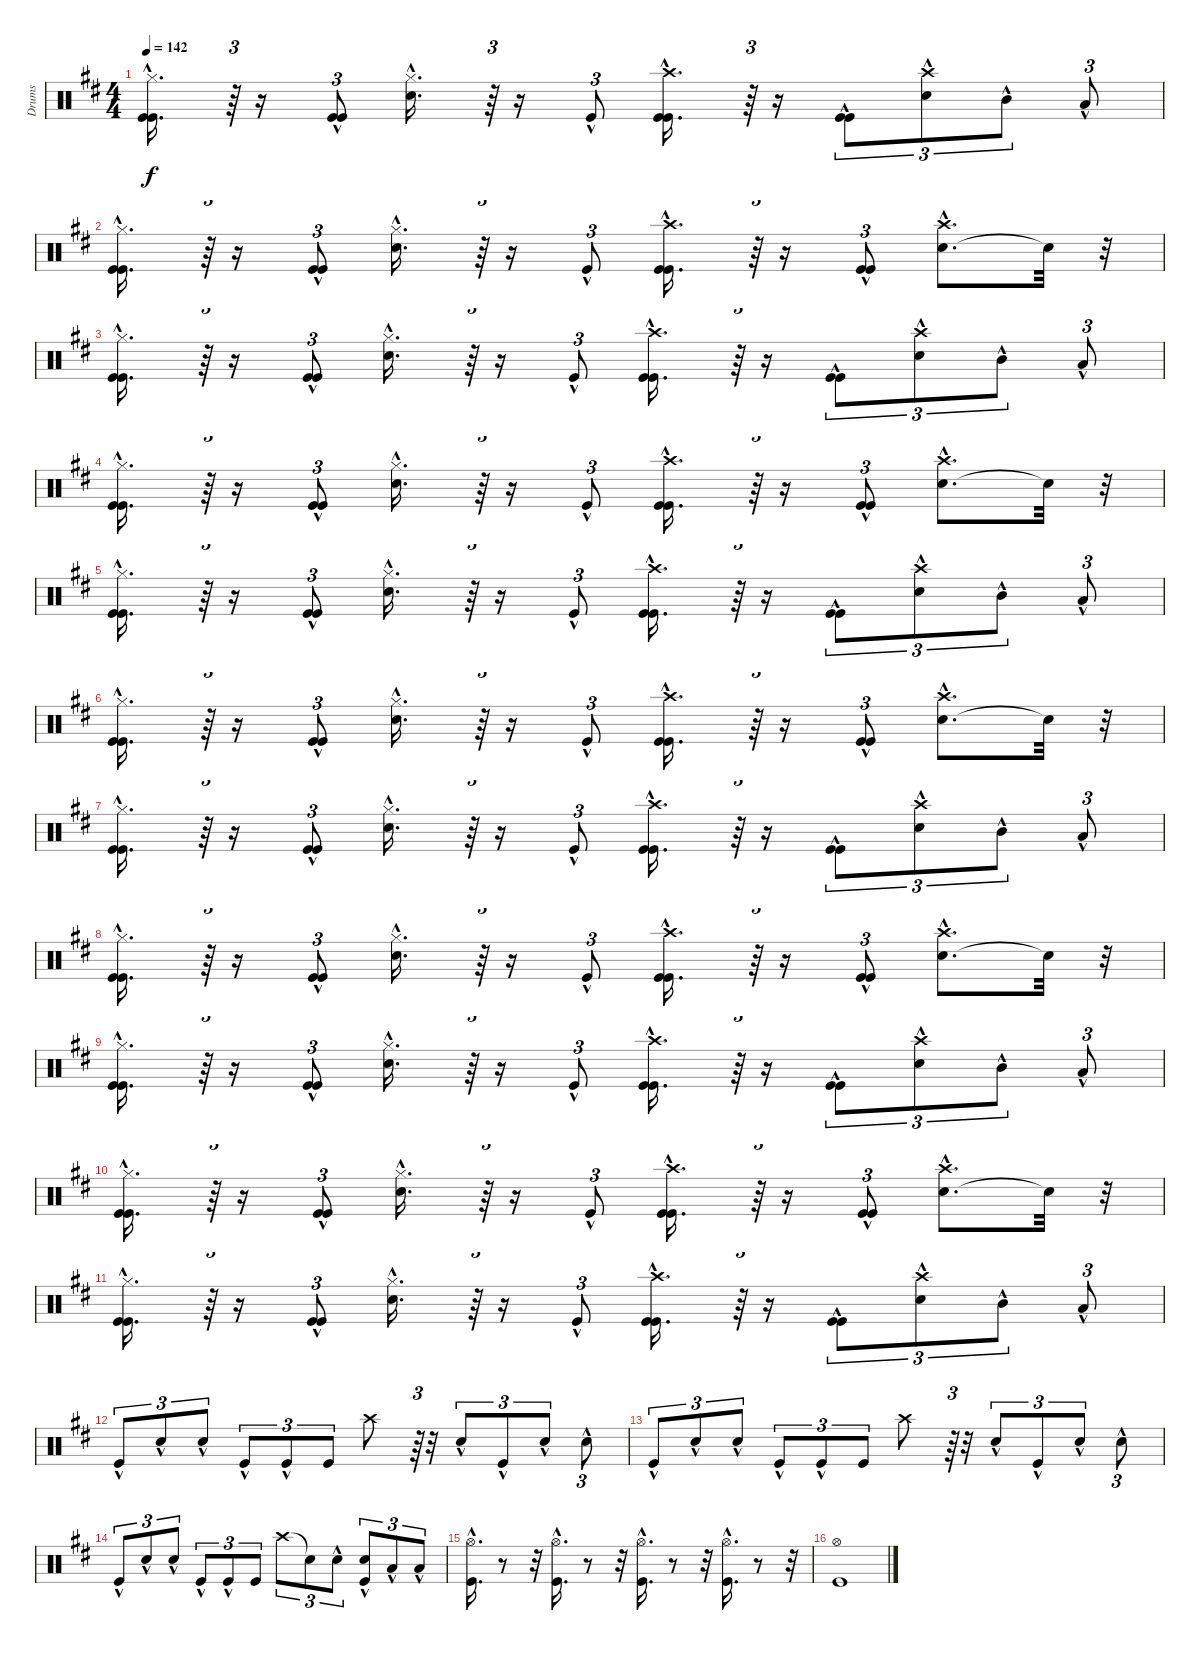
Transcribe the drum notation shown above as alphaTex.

\track ("Drums" "Drums") {instrument percussion}
\staff {score}
\articulation defaults
\ts (4 4)
\tempo 142
\clef neutral
\ks bminor
("Kick (hit)"{hac} "Kick (hit)"{hac} "Hi-Hat (closed)"{hac}).16{d dy f} r.64{tu (3 2)} r.16 ("Kick (hit)"{hac} "Kick (hit)"{hac}).8{tu (3 2)} ("Snare (hit) 2"{hac} "Hi-Hat (closed)"{hac}).16{d} r.64{tu (3 2)} r.16 "Kick (hit)"{hac}.8{tu (3 2)} ("Kick (hit)"{hac} "Kick (hit)"{hac} "Crash high (hit)"{hac}).16{d} r.64{tu (3 2)} r.16 ("Kick (hit)"{hac} "Kick (hit)"{hac}).8{tu (3 2)} ("Snare (hit) 2"{hac} "Crash high (hit)"{hac}).8{tu (3 2)} "Mid Tom (hit)"{hac}.8{tu (3 2)} "Low Tom (hit)"{hac}.8{tu (3 2)} |
("Kick (hit)"{hac} "Kick (hit)"{hac} "Hi-Hat (closed)"{hac}).16{d} r.64{tu (3 2)} r.16 ("Kick (hit)"{hac} "Kick (hit)"{hac}).8{tu (3 2)} ("Snare (hit) 2"{hac} "Hi-Hat (closed)"{hac}).16{d} r.64{tu (3 2)} r.16 "Kick (hit)"{hac}.8{tu (3 2)} ("Kick (hit)"{hac} "Kick (hit)"{hac} "Crash high (hit)"{hac}).16{d} r.64{tu (3 2)} r.16 ("Kick (hit)"{hac} "Kick (hit)"{hac}).8{tu (3 2)} ("Snare (hit) 2"{hac} "Crash high (hit)"{hac}).8{d} "Snare (hit)"{t}.32 r.32 |
("Kick (hit)"{hac} "Kick (hit)"{hac} "Hi-Hat (closed)"{hac}).16{d} r.64{tu (3 2)} r.16 ("Kick (hit)"{hac} "Kick (hit)"{hac}).8{tu (3 2)} ("Snare (hit) 2"{hac} "Hi-Hat (closed)"{hac}).16{d} r.64{tu (3 2)} r.16 "Kick (hit)"{hac}.8{tu (3 2)} ("Kick (hit)"{hac} "Kick (hit)"{hac} "Crash high (hit)"{hac}).16{d} r.64{tu (3 2)} r.16 ("Kick (hit)"{hac} "Kick (hit)"{hac}).8{tu (3 2)} ("Snare (hit) 2"{hac} "Crash high (hit)"{hac}).8{tu (3 2)} "Mid Tom (hit)"{hac}.8{tu (3 2)} "Low Tom (hit)"{hac}.8{tu (3 2)} |
("Kick (hit)"{hac} "Kick (hit)"{hac} "Hi-Hat (closed)"{hac}).16{d} r.64{tu (3 2)} r.16 ("Kick (hit)"{hac} "Kick (hit)"{hac}).8{tu (3 2)} ("Snare (hit) 2"{hac} "Hi-Hat (closed)"{hac}).16{d} r.64{tu (3 2)} r.16 "Kick (hit)"{hac}.8{tu (3 2)} ("Kick (hit)"{hac} "Kick (hit)"{hac} "Crash high (hit)"{hac}).16{d} r.64{tu (3 2)} r.16 ("Kick (hit)"{hac} "Kick (hit)"{hac}).8{tu (3 2)} ("Snare (hit) 2"{hac} "Crash high (hit)"{hac}).8{d} "Snare (hit)"{t}.32 r.32 |
("Kick (hit)"{hac} "Kick (hit)"{hac} "Hi-Hat (closed)"{hac}).16{d} r.64{tu (3 2)} r.16 ("Kick (hit)"{hac} "Kick (hit)"{hac}).8{tu (3 2)} ("Snare (hit) 2"{hac} "Hi-Hat (closed)"{hac}).16{d} r.64{tu (3 2)} r.16 "Kick (hit)"{hac}.8{tu (3 2)} ("Kick (hit)"{hac} "Kick (hit)"{hac} "Crash high (hit)"{hac}).16{d} r.64{tu (3 2)} r.16 ("Kick (hit)"{hac} "Kick (hit)"{hac}).8{tu (3 2)} ("Snare (hit) 2"{hac} "Crash high (hit)"{hac}).8{tu (3 2)} "Mid Tom (hit)"{hac}.8{tu (3 2)} "Low Tom (hit)"{hac}.8{tu (3 2)} |
("Kick (hit)"{hac} "Kick (hit)"{hac} "Hi-Hat (closed)"{hac}).16{d} r.64{tu (3 2)} r.16 ("Kick (hit)"{hac} "Kick (hit)"{hac}).8{tu (3 2)} ("Snare (hit) 2"{hac} "Hi-Hat (closed)"{hac}).16{d} r.64{tu (3 2)} r.16 "Kick (hit)"{hac}.8{tu (3 2)} ("Kick (hit)"{hac} "Kick (hit)"{hac} "Crash high (hit)"{hac}).16{d} r.64{tu (3 2)} r.16 ("Kick (hit)"{hac} "Kick (hit)"{hac}).8{tu (3 2)} ("Snare (hit) 2"{hac} "Crash high (hit)"{hac}).8{d} "Snare (hit)"{t}.32 r.32 |
("Kick (hit)"{hac} "Kick (hit)"{hac} "Hi-Hat (closed)"{hac}).16{d} r.64{tu (3 2)} r.16 ("Kick (hit)"{hac} "Kick (hit)"{hac}).8{tu (3 2)} ("Snare (hit) 2"{hac} "Hi-Hat (closed)"{hac}).16{d} r.64{tu (3 2)} r.16 "Kick (hit)"{hac}.8{tu (3 2)} ("Kick (hit)"{hac} "Kick (hit)"{hac} "Crash high (hit)"{hac}).16{d} r.64{tu (3 2)} r.16 ("Kick (hit)"{hac} "Kick (hit)"{hac}).8{tu (3 2)} ("Snare (hit) 2"{hac} "Crash high (hit)"{hac}).8{tu (3 2)} "Mid Tom (hit)"{hac}.8{tu (3 2)} "Low Tom (hit)"{hac}.8{tu (3 2)} |
("Kick (hit)"{hac} "Kick (hit)"{hac} "Hi-Hat (closed)"{hac}).16{d} r.64{tu (3 2)} r.16 ("Kick (hit)"{hac} "Kick (hit)"{hac}).8{tu (3 2)} ("Snare (hit) 2"{hac} "Hi-Hat (closed)"{hac}).16{d} r.64{tu (3 2)} r.16 "Kick (hit)"{hac}.8{tu (3 2)} ("Kick (hit)"{hac} "Kick (hit)"{hac} "Crash high (hit)"{hac}).16{d} r.64{tu (3 2)} r.16 ("Kick (hit)"{hac} "Kick (hit)"{hac}).8{tu (3 2)} ("Snare (hit) 2"{hac} "Crash high (hit)"{hac}).8{d} "Snare (hit)"{t}.32 r.32 |
("Kick (hit)"{hac} "Kick (hit)"{hac} "Hi-Hat (closed)"{hac}).16{d} r.64{tu (3 2)} r.16 ("Kick (hit)"{hac} "Kick (hit)"{hac}).8{tu (3 2)} ("Snare (hit) 2"{hac} "Hi-Hat (closed)"{hac}).16{d} r.64{tu (3 2)} r.16 "Kick (hit)"{hac}.8{tu (3 2)} ("Kick (hit)"{hac} "Kick (hit)"{hac} "Crash high (hit)"{hac}).16{d} r.64{tu (3 2)} r.16 ("Kick (hit)"{hac} "Kick (hit)"{hac}).8{tu (3 2)} ("Snare (hit) 2"{hac} "Crash high (hit)"{hac}).8{tu (3 2)} "Mid Tom (hit)"{hac}.8{tu (3 2)} "Low Tom (hit)"{hac}.8{tu (3 2)} |
("Kick (hit)"{hac} "Kick (hit)"{hac} "Hi-Hat (closed)"{hac}).16{d} r.64{tu (3 2)} r.16 ("Kick (hit)"{hac} "Kick (hit)"{hac}).8{tu (3 2)} ("Snare (hit) 2"{hac} "Hi-Hat (closed)"{hac}).16{d} r.64{tu (3 2)} r.16 "Kick (hit)"{hac}.8{tu (3 2)} ("Kick (hit)"{hac} "Kick (hit)"{hac} "Crash high (hit)"{hac}).16{d} r.64{tu (3 2)} r.16 ("Kick (hit)"{hac} "Kick (hit)"{hac}).8{tu (3 2)} ("Snare (hit) 2"{hac} "Crash high (hit)"{hac}).8{d} "Snare (hit)"{t}.32 r.32 |
("Kick (hit)"{hac} "Kick (hit)"{hac} "Hi-Hat (closed)"{hac}).16{d} r.64{tu (3 2)} r.16 ("Kick (hit)"{hac} "Kick (hit)"{hac}).8{tu (3 2)} ("Snare (hit) 2"{hac} "Hi-Hat (closed)"{hac}).16{d} r.64{tu (3 2)} r.16 "Kick (hit)"{hac}.8{tu (3 2)} ("Kick (hit)"{hac} "Kick (hit)"{hac} "Crash high (hit)"{hac}).16{d} r.64{tu (3 2)} r.16 ("Kick (hit)"{hac} "Kick (hit)"{hac}).8{tu (3 2)} ("Snare (hit) 2"{hac} "Crash high (hit)"{hac}).8{tu (3 2)} "Mid Tom (hit)"{hac}.8{tu (3 2)} "Low Tom (hit)"{hac}.8{tu (3 2)} |
"Kick (hit)"{hac}.8{tu (3 2)} "Snare (hit) 2"{hac}.8{tu (3 2)} "Snare (hit) 2"{hac}.8{tu (3 2)} "Kick (hit)"{hac}.8{tu (3 2)} "Kick (hit)"{hac}.8{tu (3 2)} "Kick (hit)".8{tu (3 2)} "Crash high (hit)".8 r.64{tu (3 2)} r.32 "Snare (hit) 2"{hac}.8{tu (3 2)} "Kick (hit)"{hac}.8{tu (3 2)} "Snare (hit) 2"{hac}.8{tu (3 2)} "Snare (hit) 2"{hac}.8{tu (3 2)} |
"Kick (hit)"{hac}.8{tu (3 2)} "Snare (hit) 2"{hac}.8{tu (3 2)} "Snare (hit) 2"{hac}.8{tu (3 2)} "Kick (hit)"{hac}.8{tu (3 2)} "Kick (hit)"{hac}.8{tu (3 2)} "Kick (hit)".8{tu (3 2)} "Crash high (hit)".8 r.64{tu (3 2)} r.32 "Snare (hit) 2"{hac}.8{tu (3 2)} "Kick (hit)"{hac}.8{tu (3 2)} "Snare (hit) 2"{hac}.8{tu (3 2)} "Snare (hit) 2"{hac}.8{tu (3 2)} |
"Kick (hit)"{hac}.8{tu (3 2)} "Snare (hit) 2"{hac}.8{tu (3 2)} "Snare (hit) 2"{hac}.8{tu (3 2)} "Kick (hit)"{hac}.8{tu (3 2)} "Kick (hit)"{hac}.8{tu (3 2)} "Kick (hit)".8{tu (3 2)} "Crash high (hit)".8{tu (3 2)} "Snare (hit)"{t}.8{tu (3 2)} "Snare (hit) 2"{hac}.8{tu (3 2)} ("Kick (hit)"{hac} "Snare (hit) 2"{hac}).8{tu (3 2)} "Low Floor Tom (hit)"{hac}.8{tu (3 2)} "Low Floor Tom (hit)"{hac}.8{tu (3 2)} |
("Kick (hit)"{hac} "Hi-Hat (open)"{hac}).16{d} r.8 r.32 ("Kick (hit)"{hac} "Hi-Hat (open)"{hac}).16{d} r.8 r.32 ("Kick (hit)"{hac} "Hi-Hat (open)"{hac}).16{d} r.8 r.32 ("Kick (hit)"{hac} "Hi-Hat (open)"{hac}).16{d} r.8 r.32 |
("Kick (hit)" "Hi-Hat (open)").1
